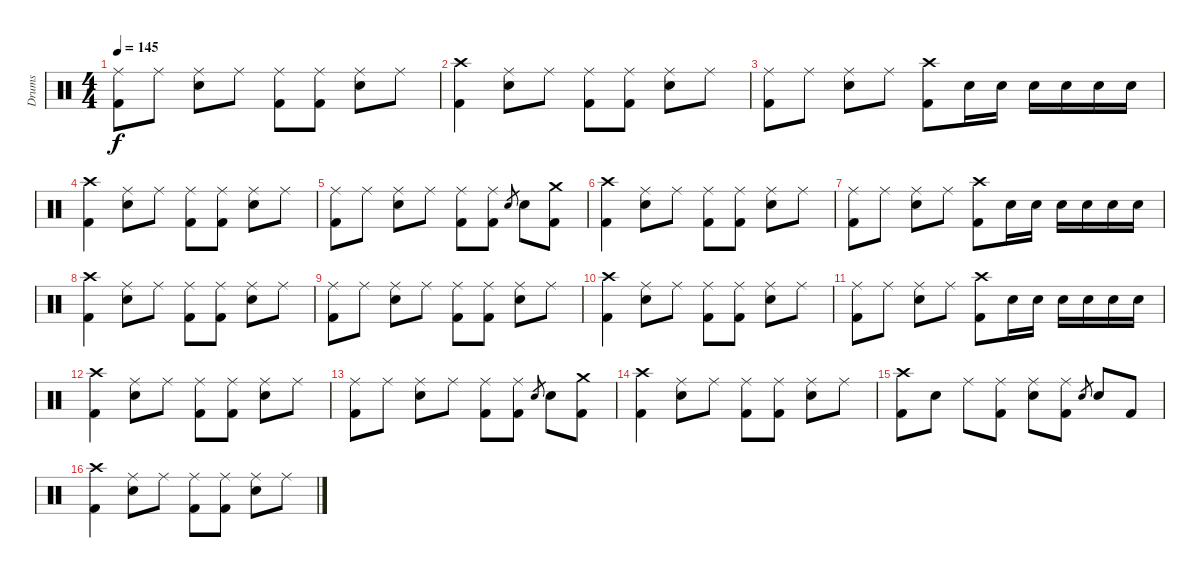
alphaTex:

\track ("Drums" "Drums") {instrument percussion}
\staff {score}
\articulation defaults
\ts (4 4)
\tempo 145
\clef neutral
\ks c
("Ride (middle)" "Kick (hit) 2").8{dy f} "Ride (middle)".8 ("Ride (middle)" "Electric Snare (hit)").8 "Ride (middle)".8 ("Ride (middle)" "Kick (hit) 2").8 ("Ride (middle)" "Kick (hit) 2").8 ("Ride (middle)" "Electric Snare (hit)").8 "Ride (middle)".8 |
("Crash high (hit)" "Kick (hit) 2").4 ("Ride (middle)" "Electric Snare (hit)").8 "Ride (middle)".8 ("Ride (middle)" "Kick (hit) 2").8 ("Ride (middle)" "Kick (hit) 2").8 ("Ride (middle)" "Electric Snare (hit)").8 "Ride (middle)".8 |
("Ride (middle)" "Kick (hit) 2").8 "Ride (middle)".8 ("Ride (middle)" "Electric Snare (hit)").8 "Ride (middle)".8 ("Crash high (hit)" "Kick (hit) 2").8 "Electric Snare (hit)".16 "Electric Snare (hit)".16 "Electric Snare (hit)".16 "Electric Snare (hit)".16 "Electric Snare (hit)".16 "Electric Snare (hit)".16 |
("Crash high (hit)" "Kick (hit) 2").4 ("Ride (middle)" "Electric Snare (hit)").8 "Ride (middle)".8 ("Ride (middle)" "Kick (hit) 2").8 ("Ride (middle)" "Kick (hit) 2").8 ("Ride (middle)" "Electric Snare (hit)").8 "Ride (middle)".8 |
("Ride (middle)" "Kick (hit) 2").8 "Ride (middle)".8 ("Ride (middle)" "Electric Snare (hit)").8 "Ride (middle)".8 ("Ride (middle)" "Kick (hit) 2").8 ("Ride (middle)" "Kick (hit) 2").8 "Electric Snare (hit)".8{gr} "Electric Snare (hit)".8 ("Crash medium (hit)" "Kick (hit) 2").8 |
("Crash high (hit)" "Kick (hit) 2").4 ("Ride (middle)" "Electric Snare (hit)").8 "Ride (middle)".8 ("Ride (middle)" "Kick (hit) 2").8 ("Ride (middle)" "Kick (hit) 2").8 ("Ride (middle)" "Electric Snare (hit)").8 "Ride (middle)".8 |
("Ride (middle)" "Kick (hit) 2").8 "Ride (middle)".8 ("Ride (middle)" "Electric Snare (hit)").8 "Ride (middle)".8 ("Crash high (hit)" "Kick (hit) 2").8 "Electric Snare (hit)".16 "Electric Snare (hit)".16 "Electric Snare (hit)".16 "Electric Snare (hit)".16 "Electric Snare (hit)".16 "Electric Snare (hit)".16 |
("Crash high (hit)" "Kick (hit) 2").4 ("Ride (middle)" "Electric Snare (hit)").8 "Ride (middle)".8 ("Ride (middle)" "Kick (hit) 2").8 ("Ride (middle)" "Kick (hit) 2").8 ("Ride (middle)" "Electric Snare (hit)").8 "Ride (middle)".8 |
("Ride (middle)" "Kick (hit) 2").8 "Ride (middle)".8 ("Ride (middle)" "Electric Snare (hit)").8 "Ride (middle)".8 ("Ride (middle)" "Kick (hit) 2").8 ("Ride (middle)" "Kick (hit) 2").8 ("Ride (middle)" "Electric Snare (hit)").8 "Ride (middle)".8 |
("Crash high (hit)" "Kick (hit) 2").4 ("Ride (middle)" "Electric Snare (hit)").8 "Ride (middle)".8 ("Ride (middle)" "Kick (hit) 2").8 ("Ride (middle)" "Kick (hit) 2").8 ("Ride (middle)" "Electric Snare (hit)").8 "Ride (middle)".8 |
("Ride (middle)" "Kick (hit) 2").8 "Ride (middle)".8 ("Ride (middle)" "Electric Snare (hit)").8 "Ride (middle)".8 ("Crash high (hit)" "Kick (hit) 2").8 "Electric Snare (hit)".16 "Electric Snare (hit)".16 "Electric Snare (hit)".16 "Electric Snare (hit)".16 "Electric Snare (hit)".16 "Electric Snare (hit)".16 |
("Crash high (hit)" "Kick (hit) 2").4 ("Ride (middle)" "Electric Snare (hit)").8 "Ride (middle)".8 ("Ride (middle)" "Kick (hit) 2").8 ("Ride (middle)" "Kick (hit) 2").8 ("Ride (middle)" "Electric Snare (hit)").8 "Ride (middle)".8 |
("Ride (middle)" "Kick (hit) 2").8 "Ride (middle)".8 ("Ride (middle)" "Electric Snare (hit)").8 "Ride (middle)".8 ("Ride (middle)" "Kick (hit) 2").8 ("Ride (middle)" "Kick (hit) 2").8 "Electric Snare (hit)".8{gr} "Electric Snare (hit)".8 ("Crash medium (hit)" "Kick (hit) 2").8 |
("Crash high (hit)" "Kick (hit) 2").4 ("Ride (middle)" "Electric Snare (hit)").8 "Ride (middle)".8 ("Ride (middle)" "Kick (hit) 2").8 ("Ride (middle)" "Kick (hit) 2").8 ("Ride (middle)" "Electric Snare (hit)").8 "Ride (middle)".8 |
("Crash high (hit)" "Kick (hit) 2").8 "Electric Snare (hit)".8 "Ride (middle)".8 ("Ride (middle)" "Kick (hit) 2").8 ("Ride (middle)" "Electric Snare (hit)").8 ("Ride (middle)" "Kick (hit) 2").8 "Electric Snare (hit)".8{gr} "Electric Snare (hit)".8 "Kick (hit) 2".8 |
("Crash high (hit)" "Kick (hit) 2").4 ("Ride (middle)" "Electric Snare (hit)").8 "Ride (middle)".8 ("Ride (middle)" "Kick (hit) 2").8 ("Ride (middle)" "Kick (hit) 2").8 ("Ride (middle)" "Electric Snare (hit)").8 "Ride (middle)".8
